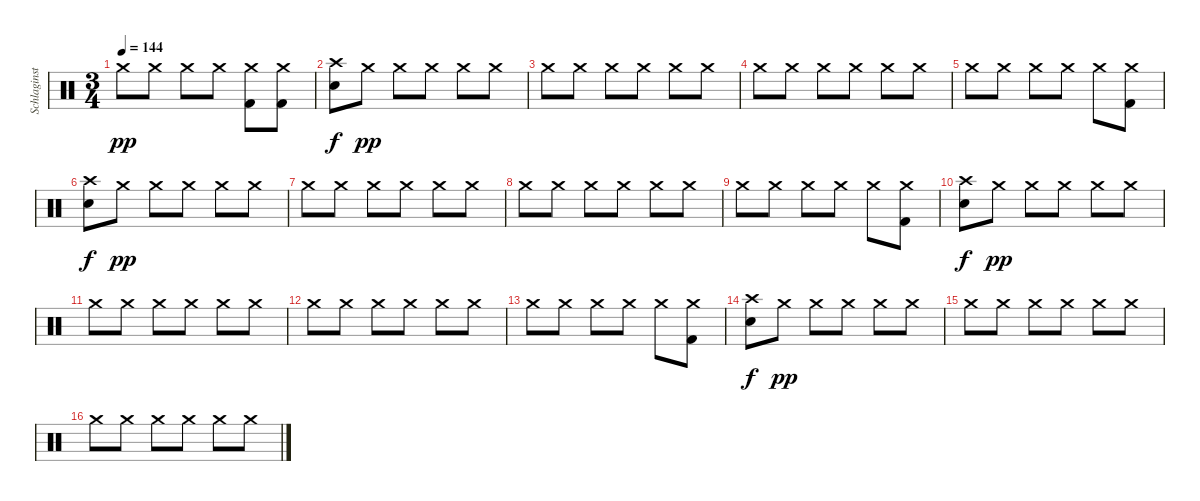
\track ("Schlaginstrumente - Auswahl" "Schlaginst") {instrument percussion}
\staff {score}
\articulation defaults
\ts (3 4)
\tempo 144
\clef neutral
\ks c "Crash medium (hit)".8{dy pp} "Crash medium (hit)".8 "Crash medium (hit)".8 "Crash medium (hit)".8
("Crash medium (hit)" "Kick (hit) 2").8 ("Crash medium (hit)" "Kick (hit) 2").8 |
("Crash high (hit)" "Snare (hit) 2").8{dy f} "Crash medium (hit)".8{dy pp} "Crash medium (hit)".8 "Crash medium (hit)".8 "Crash medium (hit)".8 "Crash medium (hit)".8 |
"Crash medium (hit)".8 "Crash medium (hit)".8 "Crash medium (hit)".8 "Crash medium (hit)".8 "Crash medium (hit)".8 "Crash medium (hit)".8 |
"Crash medium (hit)".8 "Crash medium (hit)".8 "Crash medium (hit)".8 "Crash medium (hit)".8 "Crash medium (hit)".8 "Crash medium (hit)".8 |
"Crash medium (hit)".8 "Crash medium (hit)".8 "Crash medium (hit)".8 "Crash medium (hit)".8 "Crash medium (hit)".8 ("Crash medium (hit)" "Kick (hit) 2").8 |
("Crash high (hit)" "Snare (hit) 2").8{dy f} "Crash medium (hit)".8{dy pp} "Crash medium (hit)".8 "Crash medium (hit)".8 "Crash medium (hit)".8 "Crash medium (hit)".8 |
"Crash medium (hit)".8 "Crash medium (hit)".8 "Crash medium (hit)".8 "Crash medium (hit)".8 "Crash medium (hit)".8 "Crash medium (hit)".8 |
"Crash medium (hit)".8 "Crash medium (hit)".8 "Crash medium (hit)".8 "Crash medium (hit)".8 "Crash medium (hit)".8 "Crash medium (hit)".8 |
"Crash medium (hit)".8 "Crash medium (hit)".8 "Crash medium (hit)".8 "Crash medium (hit)".8 "Crash medium (hit)".8 ("Crash medium (hit)" "Kick (hit) 2").8 |
("Crash high (hit)" "Snare (hit) 2").8{dy f} "Crash medium (hit)".8{dy pp} "Crash medium (hit)".8 "Crash medium (hit)".8 "Crash medium (hit)".8 "Crash medium (hit)".8 |
"Crash medium (hit)".8 "Crash medium (hit)".8 "Crash medium (hit)".8 "Crash medium (hit)".8 "Crash medium (hit)".8 "Crash medium (hit)".8 |
"Crash medium (hit)".8 "Crash medium (hit)".8 "Crash medium (hit)".8 "Crash medium (hit)".8 "Crash medium (hit)".8 "Crash medium (hit)".8 |
"Crash medium (hit)".8 "Crash medium (hit)".8 "Crash medium (hit)".8 "Crash medium (hit)".8 "Crash medium (hit)".8 ("Crash medium (hit)" "Kick (hit) 2").8 |
("Crash high (hit)" "Snare (hit) 2").8{dy f} "Crash medium (hit)".8{dy pp} "Crash medium (hit)".8 "Crash medium (hit)".8 "Crash medium (hit)".8 "Crash medium (hit)".8 |
"Crash medium (hit)".8 "Crash medium (hit)".8 "Crash medium (hit)".8 "Crash medium (hit)".8 "Crash medium (hit)".8 "Crash medium (hit)".8 |
"Crash medium (hit)".8 "Crash medium (hit)".8 "Crash medium (hit)".8 "Crash medium (hit)".8 "Crash medium (hit)".8 "Crash medium (hit)".8
